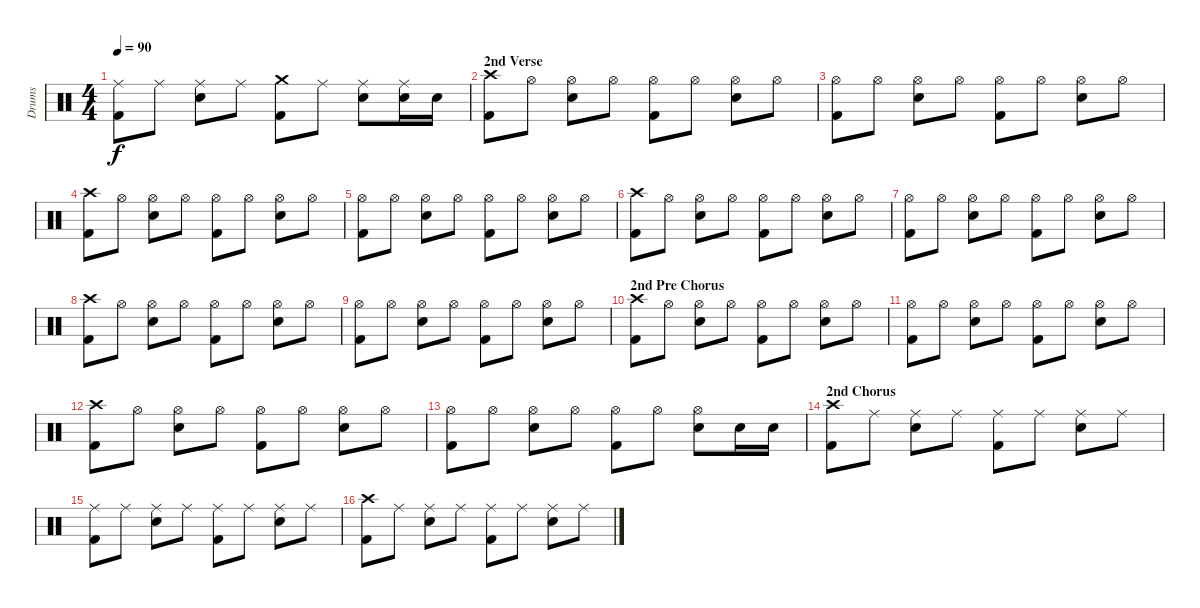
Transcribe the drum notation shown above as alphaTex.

\track ("Drums" "Drums") {instrument percussion}
\staff {score}
\articulation defaults
\ts (4 4)
\tempo 90
\clef neutral
\ks c
("Ride (middle)" "Kick (hit) 2").8{dy f} "Ride (middle)".8 ("Ride (middle)" "Snare (hit) 2").8 "Ride (middle)".8 ("Crash medium (hit)" "Kick (hit) 2").8 "Ride (middle)".8 ("Ride (middle)" "Snare (hit) 2").8 ("Ride (middle)" "Snare (hit) 2").16 "Snare (hit) 2".16 |
\section ("" "2nd Verse")
("Crash high (hit)" "Kick (hit) 2").8 "Hi-Hat (open)".8 ("Hi-Hat (open)" "Snare (hit) 2").8 "Hi-Hat (open)".8 ("Hi-Hat (open)" "Kick (hit) 2").8 "Hi-Hat (open)".8 ("Hi-Hat (open)" "Snare (hit) 2").8 "Hi-Hat (open)".8 |
("Hi-Hat (open)" "Kick (hit) 2").8 "Hi-Hat (open)".8 ("Hi-Hat (open)" "Snare (hit) 2").8 "Hi-Hat (open)".8 ("Hi-Hat (open)" "Kick (hit) 2").8 "Hi-Hat (open)".8 ("Hi-Hat (open)" "Snare (hit) 2").8 "Hi-Hat (open)".8 |
("Crash high (hit)" "Kick (hit) 2").8 "Hi-Hat (open)".8 ("Hi-Hat (open)" "Snare (hit) 2").8 "Hi-Hat (open)".8 ("Hi-Hat (open)" "Kick (hit) 2").8 "Hi-Hat (open)".8 ("Hi-Hat (open)" "Snare (hit) 2").8 "Hi-Hat (open)".8 |
("Hi-Hat (open)" "Kick (hit) 2").8 "Hi-Hat (open)".8 ("Hi-Hat (open)" "Snare (hit) 2").8 "Hi-Hat (open)".8 ("Hi-Hat (open)" "Kick (hit) 2").8 "Hi-Hat (open)".8 ("Hi-Hat (open)" "Snare (hit) 2").8 "Hi-Hat (open)".8 |
("Crash high (hit)" "Kick (hit) 2").8 "Hi-Hat (open)".8 ("Hi-Hat (open)" "Snare (hit) 2").8 "Hi-Hat (open)".8 ("Hi-Hat (open)" "Kick (hit) 2").8 "Hi-Hat (open)".8 ("Hi-Hat (open)" "Snare (hit) 2").8 "Hi-Hat (open)".8 |
("Hi-Hat (open)" "Kick (hit) 2").8 "Hi-Hat (open)".8 ("Hi-Hat (open)" "Snare (hit) 2").8 "Hi-Hat (open)".8 ("Hi-Hat (open)" "Kick (hit) 2").8 "Hi-Hat (open)".8 ("Hi-Hat (open)" "Snare (hit) 2").8 "Hi-Hat (open)".8 |
("Crash high (hit)" "Kick (hit) 2").8 "Hi-Hat (open)".8 ("Hi-Hat (open)" "Snare (hit) 2").8 "Hi-Hat (open)".8 ("Hi-Hat (open)" "Kick (hit) 2").8 "Hi-Hat (open)".8 ("Hi-Hat (open)" "Snare (hit) 2").8 "Hi-Hat (open)".8 |
("Hi-Hat (open)" "Kick (hit) 2").8 "Hi-Hat (open)".8 ("Hi-Hat (open)" "Snare (hit) 2").8 "Hi-Hat (open)".8 ("Hi-Hat (open)" "Kick (hit) 2").8 "Hi-Hat (open)".8 ("Hi-Hat (open)" "Snare (hit) 2").8 "Hi-Hat (open)".8 |
\section ("" "2nd Pre Chorus")
("Crash high (hit)" "Kick (hit) 2").8 "Hi-Hat (open)".8 ("Hi-Hat (open)" "Snare (hit) 2").8 "Hi-Hat (open)".8 ("Hi-Hat (open)" "Kick (hit) 2").8 "Hi-Hat (open)".8 ("Hi-Hat (open)" "Snare (hit) 2").8 "Hi-Hat (open)".8 |
("Hi-Hat (open)" "Kick (hit) 2").8 "Hi-Hat (open)".8 ("Hi-Hat (open)" "Snare (hit) 2").8 "Hi-Hat (open)".8 ("Hi-Hat (open)" "Kick (hit) 2").8 "Hi-Hat (open)".8 ("Hi-Hat (open)" "Snare (hit) 2").8 "Hi-Hat (open)".8 |
("Crash high (hit)" "Kick (hit) 2").8 "Hi-Hat (open)".8 ("Hi-Hat (open)" "Snare (hit) 2").8 "Hi-Hat (open)".8 ("Hi-Hat (open)" "Kick (hit) 2").8 "Hi-Hat (open)".8 ("Hi-Hat (open)" "Snare (hit) 2").8 "Hi-Hat (open)".8 |
("Hi-Hat (open)" "Kick (hit) 2").8 "Hi-Hat (open)".8 ("Hi-Hat (open)" "Snare (hit) 2").8 "Hi-Hat (open)".8 ("Hi-Hat (open)" "Kick (hit) 2").8 "Hi-Hat (open)".8 ("Hi-Hat (open)" "Snare (hit) 2").8 "Snare (hit) 2".16 "Snare (hit) 2".16 |
\section ("" "2nd Chorus")
("Crash high (hit)" "Kick (hit) 2").8 "Ride (middle)".8 ("Ride (middle)" "Snare (hit) 2").8 "Ride (middle)".8 ("Ride (middle)" "Kick (hit) 2").8 "Ride (middle)".8 ("Ride (middle)" "Snare (hit) 2").8 "Ride (middle)".8 |
("Ride (middle)" "Kick (hit) 2").8 "Ride (middle)".8 ("Ride (middle)" "Snare (hit) 2").8 "Ride (middle)".8 ("Ride (middle)" "Kick (hit) 2").8 "Ride (middle)".8 ("Ride (middle)" "Snare (hit) 2").8 "Ride (middle)".8 |
("Crash high (hit)" "Kick (hit) 2").8 "Ride (middle)".8 ("Ride (middle)" "Snare (hit) 2").8 "Ride (middle)".8 ("Ride (middle)" "Kick (hit) 2").8 "Ride (middle)".8 ("Ride (middle)" "Snare (hit) 2").8 "Ride (middle)".8
